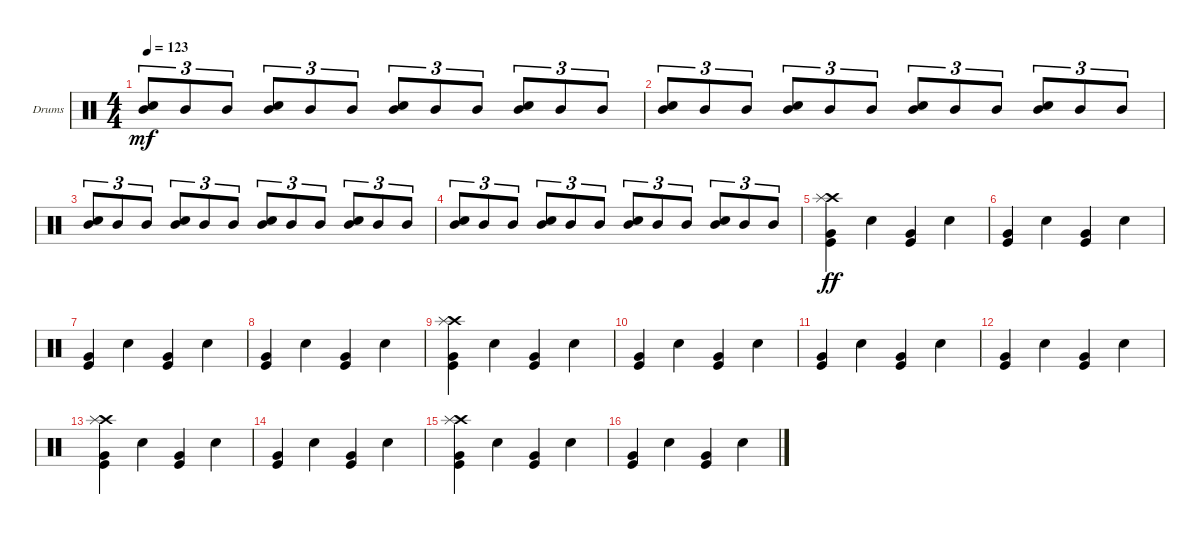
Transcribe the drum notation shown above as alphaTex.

\defaultSystemsLayout 4
\bracketExtendMode groupsimilarinstruments
\firstSystemTrackNameOrientation horizontal
\otherSystemsTrackNameOrientation horizontal
\track ("Drumkit" "Drums") {instrument percussion}
\staff {score}
\articulation defaults
\ts (4 4)
\tempo 123
\clef neutral
\scale
0.333333
\ks c
("Mid Tom (hit)" "Snare (hit) 2").8{tu (3 2) dy mf beam invert} "Mid Tom (hit)".8{tu (3 2) beam invert} "Mid Tom (hit)".8{tu (3 2) beam invert} ("Mid Tom (hit)" "Snare (hit) 2").8{tu (3 2) beam invert} "Mid Tom (hit)".8{tu (3 2) beam invert} "Mid Tom (hit)".8{tu (3 2) beam invert} ("Mid Tom (hit)" "Snare (hit) 2").8{tu (3 2) beam invert} "Mid Tom (hit)".8{tu (3 2) beam invert} "Mid Tom (hit)".8{tu (3 2) beam invert} ("Mid Tom (hit)" "Snare (hit) 2").8{tu (3 2) beam invert} "Mid Tom (hit)".8{tu (3 2) beam invert} "Mid Tom (hit)".8{tu (3 2) beam invert} |
\scale
0.333333 ("Mid Tom (hit)" "Snare (hit) 2").8{tu (3 2) beam invert} "Mid Tom (hit)".8{tu (3 2) beam invert} "Mid Tom (hit)".8{tu (3 2) beam invert} ("Mid Tom (hit)" "Snare (hit) 2").8{tu (3 2) beam invert} "Mid Tom (hit)".8{tu (3 2) beam invert} "Mid Tom (hit)".8{tu (3 2) beam invert} ("Mid Tom (hit)" "Snare (hit) 2").8{tu (3 2) beam invert} "Mid Tom (hit)".8{tu (3 2) beam invert} "Mid Tom (hit)".8{tu (3 2) beam invert} ("Mid Tom (hit)" "Snare (hit) 2").8{tu (3 2) beam invert} "Mid Tom (hit)".8{tu (3 2) beam invert} "Mid Tom (hit)".8{tu (3 2) beam invert} |
\scale
0.333333 ("Mid Tom (hit)" "Snare (hit) 2").8{tu (3 2) beam invert} "Mid Tom (hit)".8{tu (3 2) beam invert} "Mid Tom (hit)".8{tu (3 2) beam invert} ("Mid Tom (hit)" "Snare (hit) 2").8{tu (3 2) beam invert} "Mid Tom (hit)".8{tu (3 2) beam invert} "Mid Tom (hit)".8{tu (3 2) beam invert} ("Mid Tom (hit)" "Snare (hit) 2").8{tu (3 2) beam invert} "Mid Tom (hit)".8{tu (3 2) beam invert} "Mid Tom (hit)".8{tu (3 2) beam invert} ("Mid Tom (hit)" "Snare (hit) 2").8{tu (3 2) beam invert} "Mid Tom (hit)".8{tu (3 2) beam invert} "Mid Tom (hit)".8{tu (3 2) beam invert} |
\scale
0.333333 ("Mid Tom (hit)" "Snare (hit) 2").8{tu (3 2) beam invert} "Mid Tom (hit)".8{tu (3 2) beam invert} "Mid Tom (hit)".8{tu (3 2) beam invert} ("Mid Tom (hit)" "Snare (hit) 2").8{tu (3 2) beam invert} "Mid Tom (hit)".8{tu (3 2) beam invert} "Mid Tom (hit)".8{tu (3 2) beam invert} ("Mid Tom (hit)" "Snare (hit) 2").8{tu (3 2) beam invert} "Mid Tom (hit)".8{tu (3 2) beam invert} "Mid Tom (hit)".8{tu (3 2) beam invert} ("Mid Tom (hit)" "Snare (hit) 2").8{tu (3 2) beam invert} "Mid Tom (hit)".8{tu (3 2) beam invert} "Mid Tom (hit)".8{tu (3 2) beam invert} |
("Kick (hit)" "Very Low Tom (hit)" "Crash high (hit)" "Splash (hit)").4{dy ff} "Snare (hit) 2".4 ("Kick (hit)" "Very Low Tom (hit)").4 "Snare (hit) 2".4 |
("Kick (hit)" "Very Low Tom (hit)").4 "Snare (hit) 2".4 ("Kick (hit)" "Very Low Tom (hit)").4 "Snare (hit) 2".4 |
("Kick (hit)" "Very Low Tom (hit)").4 "Snare (hit) 2".4 ("Kick (hit)" "Very Low Tom (hit)").4 "Snare (hit) 2".4 |
("Kick (hit)" "Very Low Tom (hit)").4 "Snare (hit) 2".4 ("Kick (hit)" "Very Low Tom (hit)").4 "Snare (hit) 2".4 |
("Kick (hit)" "Very Low Tom (hit)" "Crash high (hit)" "Splash (hit)").4 "Snare (hit) 2".4 ("Kick (hit)" "Very Low Tom (hit)").4 "Snare (hit) 2".4 |
("Kick (hit)" "Very Low Tom (hit)").4 "Snare (hit) 2".4 ("Kick (hit)" "Very Low Tom (hit)").4 "Snare (hit) 2".4 |
("Kick (hit)" "Very Low Tom (hit)").4 "Snare (hit) 2".4 ("Kick (hit)" "Very Low Tom (hit)").4 "Snare (hit) 2".4 |
("Kick (hit)" "Very Low Tom (hit)").4 "Snare (hit) 2".4 ("Kick (hit)" "Very Low Tom (hit)").4 "Snare (hit) 2".4 |
("Kick (hit)" "Very Low Tom (hit)" "Crash high (hit)" "Splash (hit)").4 "Snare (hit) 2".4 ("Kick (hit)" "Very Low Tom (hit)").4 "Snare (hit) 2".4 |
("Kick (hit)" "Very Low Tom (hit)").4 "Snare (hit) 2".4 ("Kick (hit)" "Very Low Tom (hit)").4 "Snare (hit) 2".4 |
("Kick (hit)" "Very Low Tom (hit)" "Crash high (hit)" "Splash (hit)").4 "Snare (hit) 2".4 ("Kick (hit)" "Very Low Tom (hit)").4 "Snare (hit) 2".4 |
("Kick (hit)" "Very Low Tom (hit)").4 "Snare (hit) 2".4 ("Kick (hit)" "Very Low Tom (hit)").4 "Snare (hit) 2".4
